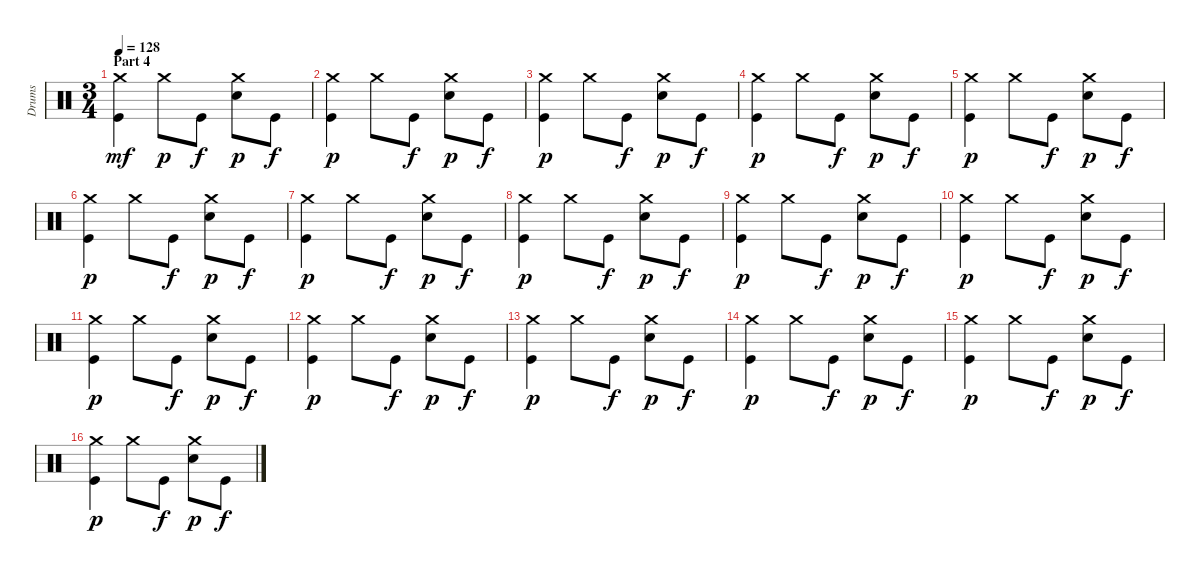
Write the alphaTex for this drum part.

\track ("Drums" "Drums") {instrument percussion}
\staff {score}
\articulation defaults
\ts (3 4)
\section ("" "Part 4")
\tempo 128
\clef neutral
\ks c
("Crash medium (hit)" "Kick (hit)").4{dy mf} "Crash medium (hit)".8{dy p} "Kick (hit)".8{dy f} ("Crash medium (hit)" "Electric Snare (hit)").8{dy p} "Kick (hit)".8{dy f} |
("Crash medium (hit)" "Kick (hit)").4{dy p} "Crash medium (hit)".8 "Kick (hit)".8{dy f} ("Crash medium (hit)" "Electric Snare (hit)").8{dy p} "Kick (hit)".8{dy f} |
("Crash medium (hit)" "Kick (hit)").4{dy p} "Crash medium (hit)".8 "Kick (hit)".8{dy f} ("Crash medium (hit)" "Electric Snare (hit)").8{dy p} "Kick (hit)".8{dy f} |
("Crash medium (hit)" "Kick (hit)").4{dy p} "Crash medium (hit)".8 "Kick (hit)".8{dy f} ("Crash medium (hit)" "Electric Snare (hit)").8{dy p} "Kick (hit)".8{dy f} |
("Crash medium (hit)" "Kick (hit)").4{dy p} "Crash medium (hit)".8 "Kick (hit)".8{dy f} ("Crash medium (hit)" "Electric Snare (hit)").8{dy p} "Kick (hit)".8{dy f} |
("Crash medium (hit)" "Kick (hit)").4{dy p} "Crash medium (hit)".8 "Kick (hit)".8{dy f} ("Crash medium (hit)" "Electric Snare (hit)").8{dy p} "Kick (hit)".8{dy f} |
("Crash medium (hit)" "Kick (hit)").4{dy p} "Crash medium (hit)".8 "Kick (hit)".8{dy f} ("Crash medium (hit)" "Electric Snare (hit)").8{dy p} "Kick (hit)".8{dy f} |
("Crash medium (hit)" "Kick (hit)").4{dy p} "Crash medium (hit)".8 "Kick (hit)".8{dy f} ("Crash medium (hit)" "Electric Snare (hit)").8{dy p} "Kick (hit)".8{dy f} |
("Crash medium (hit)" "Kick (hit)").4{dy p} "Crash medium (hit)".8 "Kick (hit)".8{dy f} ("Crash medium (hit)" "Electric Snare (hit)").8{dy p} "Kick (hit)".8{dy f} |
("Crash medium (hit)" "Kick (hit)").4{dy p} "Crash medium (hit)".8 "Kick (hit)".8{dy f} ("Crash medium (hit)" "Electric Snare (hit)").8{dy p} "Kick (hit)".8{dy f} |
("Crash medium (hit)" "Kick (hit)").4{dy p} "Crash medium (hit)".8 "Kick (hit)".8{dy f} ("Crash medium (hit)" "Electric Snare (hit)").8{dy p} "Kick (hit)".8{dy f} |
("Crash medium (hit)" "Kick (hit)").4{dy p} "Crash medium (hit)".8 "Kick (hit)".8{dy f} ("Crash medium (hit)" "Electric Snare (hit)").8{dy p} "Kick (hit)".8{dy f} |
("Crash medium (hit)" "Kick (hit)").4{dy p} "Crash medium (hit)".8 "Kick (hit)".8{dy f} ("Crash medium (hit)" "Electric Snare (hit)").8{dy p} "Kick (hit)".8{dy f} |
("Crash medium (hit)" "Kick (hit)").4{dy p} "Crash medium (hit)".8 "Kick (hit)".8{dy f} ("Crash medium (hit)" "Electric Snare (hit)").8{dy p} "Kick (hit)".8{dy f} |
("Crash medium (hit)" "Kick (hit)").4{dy p} "Crash medium (hit)".8 "Kick (hit)".8{dy f} ("Crash medium (hit)" "Electric Snare (hit)").8{dy p} "Kick (hit)".8{dy f} |
("Crash medium (hit)" "Kick (hit)").4{dy p} "Crash medium (hit)".8 "Kick (hit)".8{dy f} ("Crash medium (hit)" "Electric Snare (hit)").8{dy p} "Kick (hit)".8{dy f}
